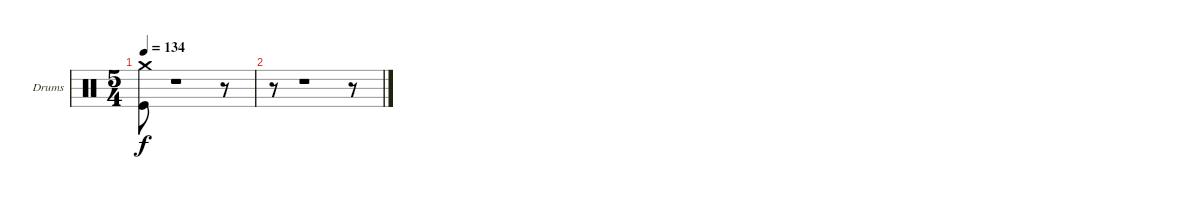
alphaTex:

\bracketExtendMode groupsimilarinstruments
\firstSystemTrackNameOrientation horizontal
\otherSystemsTrackNameOrientation horizontal
\track ("Drumkit" "Drums") {instrument percussion}
\staff {score}
\articulation defaults
\ts (5 4)
\tempo 134
\clef neutral
\ks c
("Kick (hit)" "Crash medium (hit)").8{dy f} r.1 r.8 |
r.8 r.1 r.8
